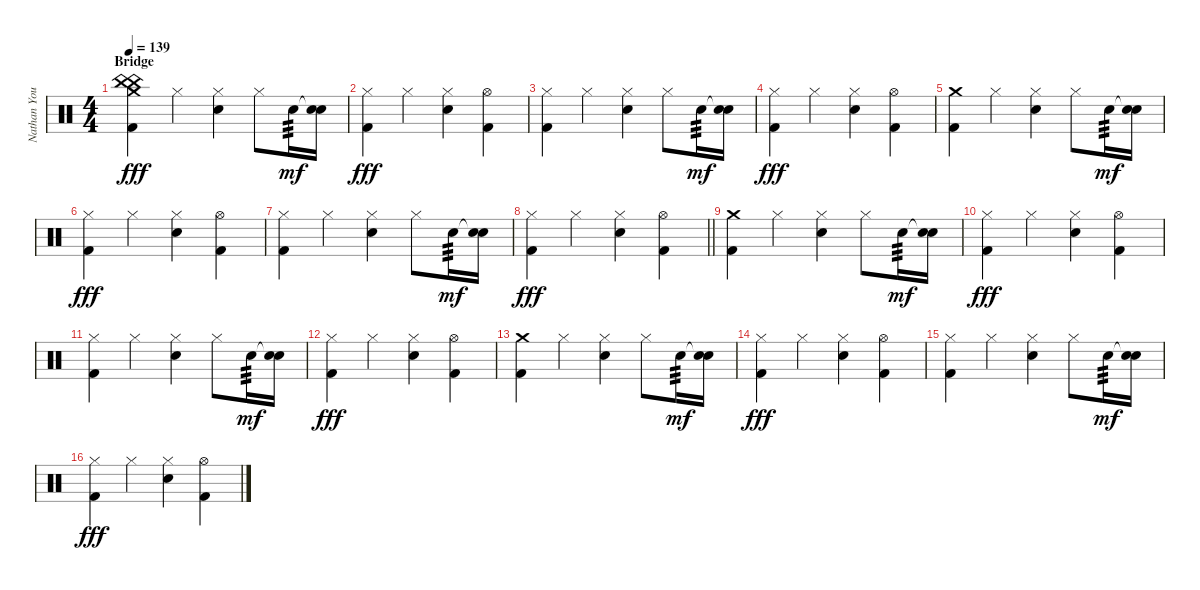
\track ("Nathan Young" "Nathan You") {instrument percussion}
\staff {score}
\articulation defaults
\ts (4 4)
\section ("" "Bridge")
\tempo 139
\clef neutral
\ks c
("China (hit)" "China (hit)" "Crash medium (hit)" "Kick (hit) 2").4{dy fff} "Hi-Hat (closed)".4 ("Hi-Hat (closed)" "Electric Snare (hit)").4 "Hi-Hat (closed)".8 "Electric Snare (hit)".16{tp 3 dy mf} ("Snare (hit)"{t} "Electric Snare (hit)").16 |
("Hi-Hat (closed)" "Kick (hit) 2").4{dy fff} "Hi-Hat (closed)".4 ("Hi-Hat (closed)" "Electric Snare (hit)").4 ("Hi-Hat (open)" "Kick (hit) 2").4 |
("Hi-Hat (closed)" "Kick (hit) 2").4 "Hi-Hat (closed)".4 ("Hi-Hat (closed)" "Electric Snare (hit)").4 "Hi-Hat (closed)".8 "Electric Snare (hit)".16{tp 3 dy mf} ("Snare (hit)"{t} "Electric Snare (hit)").16 |
("Hi-Hat (closed)" "Kick (hit) 2").4{dy fff} "Hi-Hat (closed)".4 ("Hi-Hat (closed)" "Electric Snare (hit)").4 ("Hi-Hat (open)" "Kick (hit) 2").4 |
("Crash medium (hit)" "Kick (hit) 2").4 "Hi-Hat (closed)".4 ("Hi-Hat (closed)" "Electric Snare (hit)").4 "Hi-Hat (closed)".8 "Electric Snare (hit)".16{tp 3 dy mf} ("Snare (hit)"{t} "Electric Snare (hit)").16 |
("Hi-Hat (closed)" "Kick (hit) 2").4{dy fff} "Hi-Hat (closed)".4 ("Hi-Hat (closed)" "Electric Snare (hit)").4 ("Hi-Hat (open)" "Kick (hit) 2").4 |
("Hi-Hat (closed)" "Kick (hit) 2").4 "Hi-Hat (closed)".4 ("Hi-Hat (closed)" "Electric Snare (hit)").4 "Hi-Hat (closed)".8 "Electric Snare (hit)".16{tp 3 dy mf} ("Snare (hit)"{t} "Electric Snare (hit)").16 |
\barLineRight lightlight
("Hi-Hat (closed)" "Kick (hit) 2").4{dy fff} "Hi-Hat (closed)".4 ("Hi-Hat (closed)" "Electric Snare (hit)").4 ("Hi-Hat (open)" "Kick (hit) 2").4 |
("Crash medium (hit)" "Kick (hit) 2").4 "Hi-Hat (closed)".4 ("Hi-Hat (closed)" "Electric Snare (hit)").4 "Hi-Hat (closed)".8 "Electric Snare (hit)".16{tp 3 dy mf} ("Snare (hit)"{t} "Electric Snare (hit)").16 |
("Hi-Hat (closed)" "Kick (hit) 2").4{dy fff} "Hi-Hat (closed)".4 ("Hi-Hat (closed)" "Electric Snare (hit)").4 ("Hi-Hat (open)" "Kick (hit) 2").4 |
("Hi-Hat (closed)" "Kick (hit) 2").4 "Hi-Hat (closed)".4 ("Hi-Hat (closed)" "Electric Snare (hit)").4 "Hi-Hat (closed)".8 "Electric Snare (hit)".16{tp 3 dy mf} ("Snare (hit)"{t} "Electric Snare (hit)").16 |
("Hi-Hat (closed)" "Kick (hit) 2").4{dy fff} "Hi-Hat (closed)".4 ("Hi-Hat (closed)" "Electric Snare (hit)").4 ("Hi-Hat (open)" "Kick (hit) 2").4 |
("Crash medium (hit)" "Kick (hit) 2").4 "Hi-Hat (closed)".4 ("Hi-Hat (closed)" "Electric Snare (hit)").4 "Hi-Hat (closed)".8 "Electric Snare (hit)".16{tp 3 dy mf} ("Snare (hit)"{t} "Electric Snare (hit)").16 |
("Hi-Hat (closed)" "Kick (hit) 2").4{dy fff} "Hi-Hat (closed)".4 ("Hi-Hat (closed)" "Electric Snare (hit)").4 ("Hi-Hat (open)" "Kick (hit) 2").4 |
("Hi-Hat (closed)" "Kick (hit) 2").4 "Hi-Hat (closed)".4 ("Hi-Hat (closed)" "Electric Snare (hit)").4 "Hi-Hat (closed)".8 "Electric Snare (hit)".16{tp 3 dy mf} ("Snare (hit)"{t} "Electric Snare (hit)").16 |
("Hi-Hat (closed)" "Kick (hit) 2").4{dy fff} "Hi-Hat (closed)".4 ("Hi-Hat (closed)" "Electric Snare (hit)").4 ("Hi-Hat (open)" "Kick (hit) 2").4
